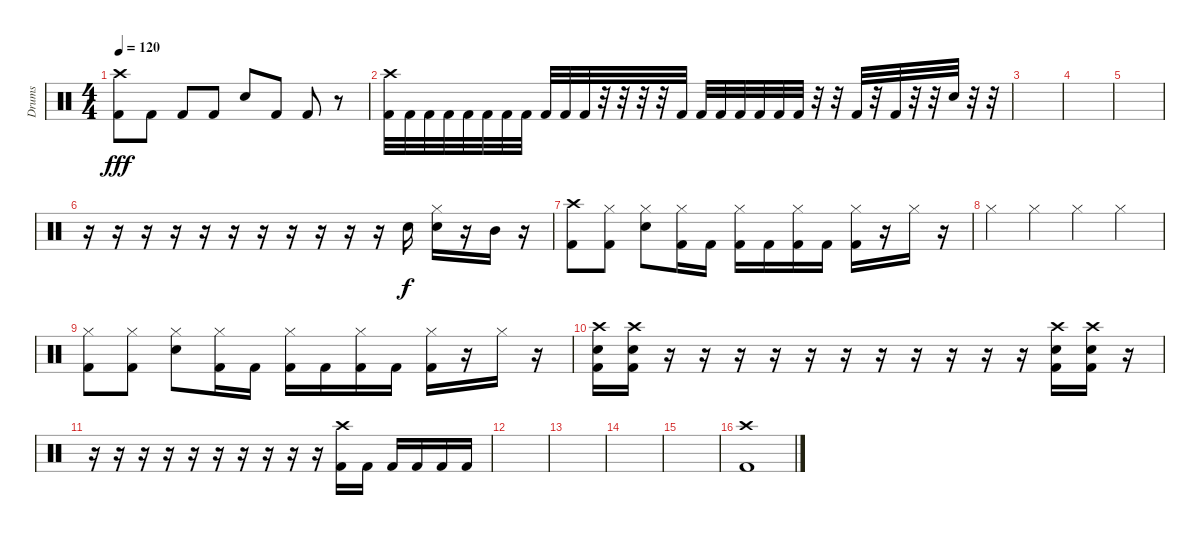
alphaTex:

\track ("Drums" "Drums") {instrument percussion}
\staff {score}
\articulation defaults
\ts (4 4)
\tempo 120
\clef neutral
\ks c
("Crash high (hit)" "Kick (hit) 2").8{dy fff} "Kick (hit) 2".8 "Kick (hit) 2".8 "Kick (hit) 2".8 "Snare (hit) 2".8 "Kick (hit) 2".8 "Kick (hit) 2".8 r.8 |
("Crash high (hit)" "Kick (hit) 2").32 "Kick (hit) 2".32 "Kick (hit) 2".32 "Kick (hit) 2".32 "Kick (hit) 2".32 "Kick (hit) 2".32 "Kick (hit) 2".32 "Kick (hit) 2".32 "Kick (hit) 2".32 "Kick (hit) 2".32 "Kick (hit) 2".32 r.32 r.32 r.32 r.32 "Kick (hit) 2".32 "Kick (hit) 2".32 "Kick (hit) 2".32 "Kick (hit) 2".32 "Kick (hit) 2".32 "Kick (hit) 2".32 "Kick (hit) 2".32 r.32 r.32 "Kick (hit) 2".32 r.32 "Kick (hit) 2".32 r.32 r.32 "Snare (hit) 2".32 r.32 r.32 |
|
|
|
r.16 r.16 r.16 r.16 r.16 r.16 r.16 r.16 r.16 r.16 r.16 "Electric Snare (hit)".16{dy f} ("Hi-Hat (closed)" "Electric Snare (hit)").16 r.16 "Mid Tom (hit)".16 r.16 |
("Crash high (hit)" "Kick (hit) 2").8 ("Hi-Hat (closed)" "Kick (hit) 2").8 ("Hi-Hat (closed)" "Snare (hit) 2").8 ("Hi-Hat (closed)" "Kick (hit) 2").16 "Kick (hit) 2".16 ("Hi-Hat (closed)" "Kick (hit) 2").16 "Kick (hit) 2".16 ("Hi-Hat (closed)" "Kick (hit) 2").16 "Kick (hit) 2".16 ("Hi-Hat (closed)" "Kick (hit) 2").16 r.16 "Hi-Hat (closed)".16 r.16 |
"Hi-Hat (closed)".4 "Hi-Hat (closed)".4 "Hi-Hat (closed)".4 "Hi-Hat (closed)".4 |
("Hi-Hat (closed)" "Kick (hit) 2").8 ("Hi-Hat (closed)" "Kick (hit) 2").8 ("Hi-Hat (closed)" "Snare (hit) 2").8 ("Hi-Hat (closed)" "Kick (hit) 2").16 "Kick (hit) 2".16 ("Hi-Hat (closed)" "Kick (hit) 2").16 "Kick (hit) 2".16 ("Hi-Hat (closed)" "Kick (hit) 2").16 "Kick (hit) 2".16 ("Hi-Hat (closed)" "Kick (hit) 2").16 r.16 "Hi-Hat (closed)".16 r.16 |
("Crash high (hit)" "Snare (hit) 2" "Kick (hit) 2").16 ("Crash high (hit)" "Snare (hit) 2" "Kick (hit) 2").16 r.16 r.16 r.16 r.16 r.16 r.16 r.16 r.16 r.16 r.16 r.16 ("Crash high (hit)" "Snare (hit) 2" "Kick (hit) 2").16 ("Crash high (hit)" "Snare (hit) 2" "Kick (hit) 2").16 r.16 |
r.16 r.16 r.16 r.16 r.16 r.16 r.16 r.16 r.16 r.16 ("Crash high (hit)" "Kick (hit) 2").16 "Kick (hit) 2".16 "Kick (hit) 2".16 "Kick (hit) 2".16 "Kick (hit) 2".16 "Kick (hit) 2".16 |
|
|
|
|
("Crash high (hit)" "Kick (hit) 2").1
